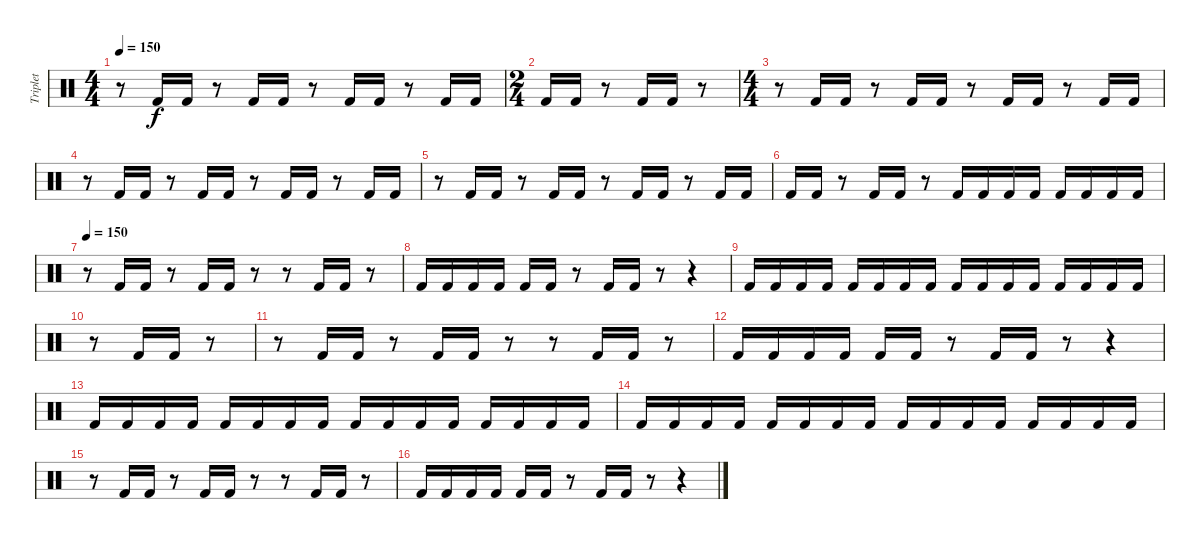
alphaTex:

\track ("Triplet" "Triplet") {instrument percussion}
\staff {score}
\articulation defaults
\ts (4 4)
\tempo 150
\clef neutral
\ks c
r.8{dy f} "Kick (hit) 2".16 "Kick (hit) 2".16 r.8 "Kick (hit) 2".16 "Kick (hit) 2".16 r.8 "Kick (hit) 2".16 "Kick (hit) 2".16 r.8 "Kick (hit) 2".16 "Kick (hit) 2".16 |
\ts (2 4)
"Kick (hit) 2".16 "Kick (hit) 2".16 r.8 "Kick (hit) 2".16 "Kick (hit) 2".16 r.8 |
\ts (4 4)
r.8 "Kick (hit) 2".16 "Kick (hit) 2".16 r.8 "Kick (hit) 2".16 "Kick (hit) 2".16 r.8 "Kick (hit) 2".16 "Kick (hit) 2".16 r.8 "Kick (hit) 2".16 "Kick (hit) 2".16 |
r.8 "Kick (hit) 2".16 "Kick (hit) 2".16 r.8 "Kick (hit) 2".16 "Kick (hit) 2".16 r.8 "Kick (hit) 2".16 "Kick (hit) 2".16 r.8 "Kick (hit) 2".16 "Kick (hit) 2".16 |
r.8 "Kick (hit) 2".16 "Kick (hit) 2".16 r.8 "Kick (hit) 2".16 "Kick (hit) 2".16 r.8 "Kick (hit) 2".16 "Kick (hit) 2".16 r.8 "Kick (hit) 2".16 "Kick (hit) 2".16 |
"Kick (hit) 2".16 "Kick (hit) 2".16 r.8 "Kick (hit) 2".16 "Kick (hit) 2".16 r.8 "Kick (hit) 2".16 "Kick (hit) 2".16 "Kick (hit) 2".16 "Kick (hit) 2".16 "Kick (hit) 2".16 "Kick (hit) 2".16 "Kick (hit) 2".16 "Kick (hit) 2".16 |
\tempo 150
r.8 "Kick (hit) 2".16 "Kick (hit) 2".16 r.8 "Kick (hit) 2".16 "Kick (hit) 2".16 r.8 r.8 "Kick (hit) 2".16 "Kick (hit) 2".16 r.8 |
"Kick (hit) 2".16 "Kick (hit) 2".16 "Kick (hit) 2".16 "Kick (hit) 2".16 "Kick (hit) 2".16 "Kick (hit) 2".16 r.8 "Kick (hit) 2".16 "Kick (hit) 2".16 r.8 r.4 |
"Kick (hit) 2".16 "Kick (hit) 2".16 "Kick (hit) 2".16 "Kick (hit) 2".16 "Kick (hit) 2".16 "Kick (hit) 2".16 "Kick (hit) 2".16 "Kick (hit) 2".16 "Kick (hit) 2".16 "Kick (hit) 2".16 "Kick (hit) 2".16 "Kick (hit) 2".16 "Kick (hit) 2".16 "Kick (hit) 2".16 "Kick (hit) 2".16 "Kick (hit) 2".16 |
r.8 "Kick (hit) 2".16 "Kick (hit) 2".16 r.8 |
r.8 "Kick (hit) 2".16 "Kick (hit) 2".16 r.8 "Kick (hit) 2".16 "Kick (hit) 2".16 r.8 r.8 "Kick (hit) 2".16 "Kick (hit) 2".16 r.8 |
"Kick (hit) 2".16 "Kick (hit) 2".16 "Kick (hit) 2".16 "Kick (hit) 2".16 "Kick (hit) 2".16 "Kick (hit) 2".16 r.8 "Kick (hit) 2".16 "Kick (hit) 2".16 r.8 r.4 |
"Kick (hit) 2".16 "Kick (hit) 2".16 "Kick (hit) 2".16 "Kick (hit) 2".16 "Kick (hit) 2".16 "Kick (hit) 2".16 "Kick (hit) 2".16 "Kick (hit) 2".16 "Kick (hit) 2".16 "Kick (hit) 2".16 "Kick (hit) 2".16 "Kick (hit) 2".16 "Kick (hit) 2".16 "Kick (hit) 2".16 "Kick (hit) 2".16 "Kick (hit) 2".16 |
"Kick (hit) 2".16 "Kick (hit) 2".16 "Kick (hit) 2".16 "Kick (hit) 2".16 "Kick (hit) 2".16 "Kick (hit) 2".16 "Kick (hit) 2".16 "Kick (hit) 2".16 "Kick (hit) 2".16 "Kick (hit) 2".16 "Kick (hit) 2".16 "Kick (hit) 2".16 "Kick (hit) 2".16 "Kick (hit) 2".16 "Kick (hit) 2".16 "Kick (hit) 2".16 |
r.8 "Kick (hit) 2".16 "Kick (hit) 2".16 r.8 "Kick (hit) 2".16 "Kick (hit) 2".16 r.8 r.8 "Kick (hit) 2".16 "Kick (hit) 2".16 r.8 |
"Kick (hit) 2".16 "Kick (hit) 2".16 "Kick (hit) 2".16 "Kick (hit) 2".16 "Kick (hit) 2".16 "Kick (hit) 2".16 r.8 "Kick (hit) 2".16 "Kick (hit) 2".16 r.8 r.4
